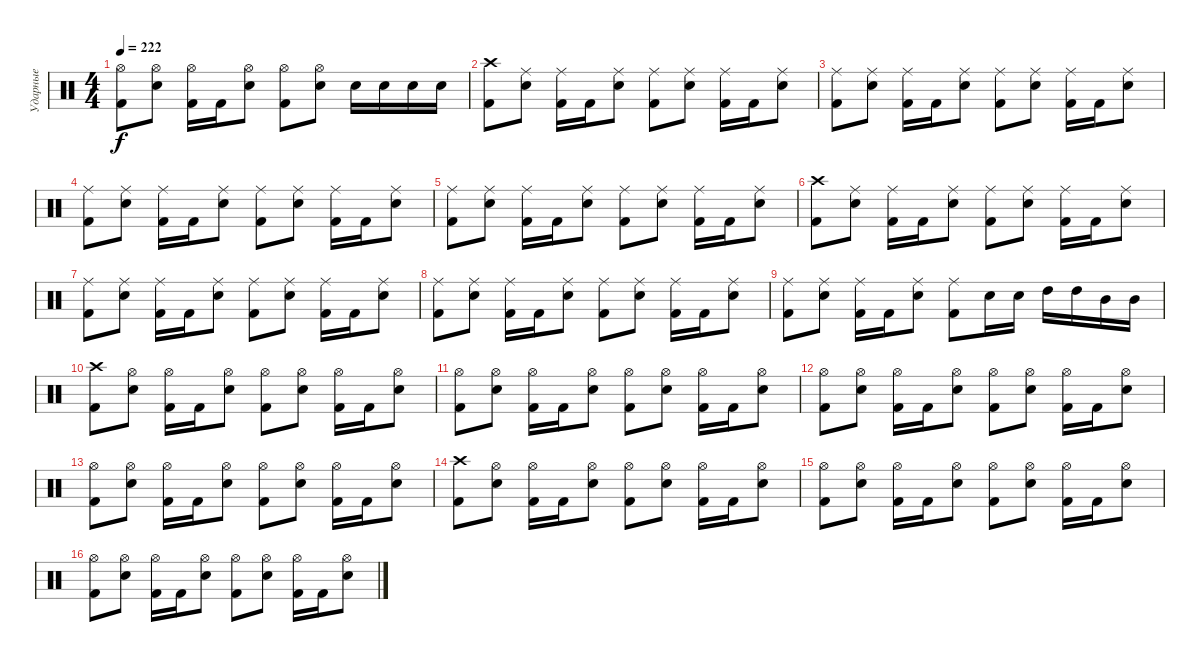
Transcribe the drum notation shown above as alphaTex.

\track ("Ударные" "Ударные") {instrument percussion}
\staff {score}
\articulation defaults
\ts (4 4)
\tempo 222
\clef neutral
\ks c
("Hi-Hat (open)" "Kick (hit) 2").8{dy f} ("Hi-Hat (open)" "Electric Snare (hit)").8 ("Hi-Hat (open)" "Kick (hit) 2").16 "Kick (hit) 2".16 ("Hi-Hat (open)" "Electric Snare (hit)").8 ("Hi-Hat (open)" "Kick (hit) 2").8 ("Hi-Hat (open)" "Electric Snare (hit)").8 "Electric Snare (hit)".16 "Electric Snare (hit)".16 "Electric Snare (hit)".16 "Electric Snare (hit)".16 |
("Crash high (hit)" "Kick (hit) 2").8 ("Ride (middle)" "Electric Snare (hit)").8 ("Ride (middle)" "Kick (hit) 2").16 "Kick (hit) 2".16 ("Ride (middle)" "Electric Snare (hit)").8 ("Ride (middle)" "Kick (hit) 2").8 ("Ride (middle)" "Electric Snare (hit)").8 ("Ride (middle)" "Kick (hit) 2").16 "Kick (hit) 2".16 ("Ride (middle)" "Electric Snare (hit)").8 |
("Ride (middle)" "Kick (hit) 2").8 ("Ride (middle)" "Electric Snare (hit)").8 ("Ride (middle)" "Kick (hit) 2").16 "Kick (hit) 2".16 ("Ride (middle)" "Electric Snare (hit)").8 ("Ride (middle)" "Kick (hit) 2").8 ("Ride (middle)" "Electric Snare (hit)").8 ("Ride (middle)" "Kick (hit) 2").16 "Kick (hit) 2".16 ("Ride (middle)" "Electric Snare (hit)").8 |
("Ride (middle)" "Kick (hit) 2").8 ("Ride (middle)" "Electric Snare (hit)").8 ("Ride (middle)" "Kick (hit) 2").16 "Kick (hit) 2".16 ("Ride (middle)" "Electric Snare (hit)").8 ("Ride (middle)" "Kick (hit) 2").8 ("Ride (middle)" "Electric Snare (hit)").8 ("Ride (middle)" "Kick (hit) 2").16 "Kick (hit) 2".16 ("Ride (middle)" "Electric Snare (hit)").8 |
("Ride (middle)" "Kick (hit) 2").8 ("Ride (middle)" "Electric Snare (hit)").8 ("Ride (middle)" "Kick (hit) 2").16 "Kick (hit) 2".16 ("Ride (middle)" "Electric Snare (hit)").8 ("Ride (middle)" "Kick (hit) 2").8 ("Ride (middle)" "Electric Snare (hit)").8 ("Ride (middle)" "Kick (hit) 2").16 "Kick (hit) 2".16 ("Ride (middle)" "Electric Snare (hit)").8 |
("Crash high (hit)" "Kick (hit) 2").8 ("Ride (middle)" "Electric Snare (hit)").8 ("Ride (middle)" "Kick (hit) 2").16 "Kick (hit) 2".16 ("Ride (middle)" "Electric Snare (hit)").8 ("Ride (middle)" "Kick (hit) 2").8 ("Ride (middle)" "Electric Snare (hit)").8 ("Ride (middle)" "Kick (hit) 2").16 "Kick (hit) 2".16 ("Ride (middle)" "Electric Snare (hit)").8 |
("Ride (middle)" "Kick (hit) 2").8 ("Ride (middle)" "Electric Snare (hit)").8 ("Ride (middle)" "Kick (hit) 2").16 "Kick (hit) 2".16 ("Ride (middle)" "Electric Snare (hit)").8 ("Ride (middle)" "Kick (hit) 2").8 ("Ride (middle)" "Electric Snare (hit)").8 ("Ride (middle)" "Kick (hit) 2").16 "Kick (hit) 2".16 ("Ride (middle)" "Electric Snare (hit)").8 |
("Ride (middle)" "Kick (hit) 2").8 ("Ride (middle)" "Electric Snare (hit)").8 ("Ride (middle)" "Kick (hit) 2").16 "Kick (hit) 2".16 ("Ride (middle)" "Electric Snare (hit)").8 ("Ride (middle)" "Kick (hit) 2").8 ("Ride (middle)" "Electric Snare (hit)").8 ("Ride (middle)" "Kick (hit) 2").16 "Kick (hit) 2".16 ("Ride (middle)" "Electric Snare (hit)").8 |
("Ride (middle)" "Kick (hit) 2").8 ("Ride (middle)" "Electric Snare (hit)").8 ("Ride (middle)" "Kick (hit) 2").16 "Kick (hit) 2".16 ("Ride (middle)" "Electric Snare (hit)").8 ("Ride (middle)" "Kick (hit) 2").8 "Electric Snare (hit)".16 "Electric Snare (hit)".16 "High Tom (hit)".16 "High Tom (hit)".16 "Mid Tom (hit)".16 "Mid Tom (hit)".16 |
("Crash high (hit)" "Kick (hit) 2").8 ("Hi-Hat (open)" "Electric Snare (hit)").8 ("Hi-Hat (open)" "Kick (hit) 2").16 "Kick (hit) 2".16 ("Hi-Hat (open)" "Electric Snare (hit)").8 ("Hi-Hat (open)" "Kick (hit) 2").8 ("Hi-Hat (open)" "Electric Snare (hit)").8 ("Hi-Hat (open)" "Kick (hit) 2").16 "Kick (hit) 2".16 ("Hi-Hat (open)" "Electric Snare (hit)").8 |
("Hi-Hat (open)" "Kick (hit) 2").8 ("Hi-Hat (open)" "Electric Snare (hit)").8 ("Hi-Hat (open)" "Kick (hit) 2").16 "Kick (hit) 2".16 ("Hi-Hat (open)" "Electric Snare (hit)").8 ("Hi-Hat (open)" "Kick (hit) 2").8 ("Hi-Hat (open)" "Electric Snare (hit)").8 ("Hi-Hat (open)" "Kick (hit) 2").16 "Kick (hit) 2".16 ("Hi-Hat (open)" "Electric Snare (hit)").8 |
("Hi-Hat (open)" "Kick (hit) 2").8 ("Hi-Hat (open)" "Electric Snare (hit)").8 ("Hi-Hat (open)" "Kick (hit) 2").16 "Kick (hit) 2".16 ("Hi-Hat (open)" "Electric Snare (hit)").8 ("Hi-Hat (open)" "Kick (hit) 2").8 ("Hi-Hat (open)" "Electric Snare (hit)").8 ("Hi-Hat (open)" "Kick (hit) 2").16 "Kick (hit) 2".16 ("Hi-Hat (open)" "Electric Snare (hit)").8 |
("Hi-Hat (open)" "Kick (hit) 2").8 ("Hi-Hat (open)" "Electric Snare (hit)").8 ("Hi-Hat (open)" "Kick (hit) 2").16 "Kick (hit) 2".16 ("Hi-Hat (open)" "Electric Snare (hit)").8 ("Hi-Hat (open)" "Kick (hit) 2").8 ("Hi-Hat (open)" "Electric Snare (hit)").8 ("Hi-Hat (open)" "Kick (hit) 2").16 "Kick (hit) 2".16 ("Hi-Hat (open)" "Electric Snare (hit)").8 |
("Crash high (hit)" "Kick (hit) 2").8 ("Hi-Hat (open)" "Electric Snare (hit)").8 ("Hi-Hat (open)" "Kick (hit) 2").16 "Kick (hit) 2".16 ("Hi-Hat (open)" "Electric Snare (hit)").8 ("Hi-Hat (open)" "Kick (hit) 2").8 ("Hi-Hat (open)" "Electric Snare (hit)").8 ("Hi-Hat (open)" "Kick (hit) 2").16 "Kick (hit) 2".16 ("Hi-Hat (open)" "Electric Snare (hit)").8 |
("Hi-Hat (open)" "Kick (hit) 2").8 ("Hi-Hat (open)" "Electric Snare (hit)").8 ("Hi-Hat (open)" "Kick (hit) 2").16 "Kick (hit) 2".16 ("Hi-Hat (open)" "Electric Snare (hit)").8 ("Hi-Hat (open)" "Kick (hit) 2").8 ("Hi-Hat (open)" "Electric Snare (hit)").8 ("Hi-Hat (open)" "Kick (hit) 2").16 "Kick (hit) 2".16 ("Hi-Hat (open)" "Electric Snare (hit)").8 |
("Hi-Hat (open)" "Kick (hit) 2").8 ("Hi-Hat (open)" "Electric Snare (hit)").8 ("Hi-Hat (open)" "Kick (hit) 2").16 "Kick (hit) 2".16 ("Hi-Hat (open)" "Electric Snare (hit)").8 ("Hi-Hat (open)" "Kick (hit) 2").8 ("Hi-Hat (open)" "Electric Snare (hit)").8 ("Hi-Hat (open)" "Kick (hit) 2").16 "Kick (hit) 2".16 ("Hi-Hat (open)" "Electric Snare (hit)").8
